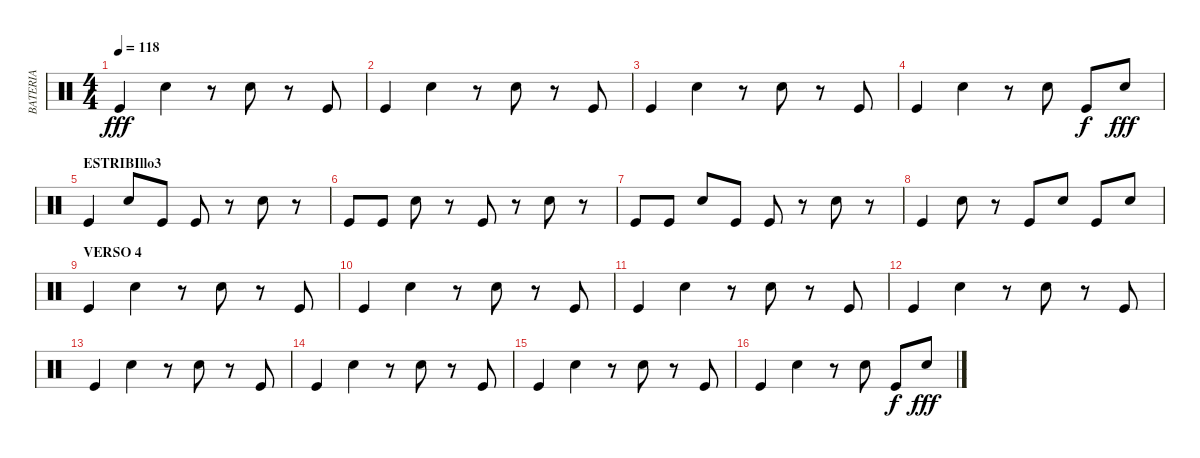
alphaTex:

\track ("BATERIA" "BATERIA") {instrument percussion}
\staff {score}
\articulation defaults
\ts (4 4)
\tempo 118
\clef neutral
\ks c "Kick (hit)".4{dy fff} "Snare (hit) 2".4
r.8 "Snare (hit) 2".8 r.8 "Kick (hit)".8 |
"Kick (hit)".4 "Snare (hit) 2".4 r.8 "Snare (hit) 2".8 r.8 "Kick (hit)".8 |
"Kick (hit)".4 "Snare (hit) 2".4 r.8 "Snare (hit) 2".8 r.8 "Kick (hit)".8 |
"Kick (hit)".4 "Snare (hit) 2".4 r.8 "Snare (hit) 2".8 "Kick (hit)".8{dy f} "Snare (hit) 2".8{dy fff} |
\section ("" "ESTRIBIllo3")
"Kick (hit)".4 "Snare (hit) 2".8 "Kick (hit)".8 "Kick (hit)".8 r.8 "Snare (hit) 2".8 r.8 |
"Kick (hit)".8 "Kick (hit)".8 "Snare (hit) 2".8 r.8 "Kick (hit)".8 r.8 "Snare (hit) 2".8 r.8 |
"Kick (hit)".8 "Kick (hit)".8 "Snare (hit) 2".8 "Kick (hit)".8 "Kick (hit)".8 r.8 "Snare (hit) 2".8 r.8 |
"Kick (hit)".4 "Snare (hit) 2".8 r.8 "Kick (hit)".8 "Snare (hit) 2".8 "Kick (hit)".8 "Snare (hit) 2".8 |
\section ("" "VERSO 4")
"Kick (hit)".4 "Snare (hit) 2".4 r.8 "Snare (hit) 2".8 r.8 "Kick (hit)".8 |
"Kick (hit)".4 "Snare (hit) 2".4 r.8 "Snare (hit) 2".8 r.8 "Kick (hit)".8 |
"Kick (hit)".4 "Snare (hit) 2".4 r.8 "Snare (hit) 2".8 r.8 "Kick (hit)".8 |
"Kick (hit)".4 "Snare (hit) 2".4 r.8 "Snare (hit) 2".8 r.8 "Kick (hit)".8 |
"Kick (hit)".4 "Snare (hit) 2".4 r.8 "Snare (hit) 2".8 r.8 "Kick (hit)".8 |
"Kick (hit)".4 "Snare (hit) 2".4 r.8 "Snare (hit) 2".8 r.8 "Kick (hit)".8 |
"Kick (hit)".4 "Snare (hit) 2".4 r.8 "Snare (hit) 2".8 r.8 "Kick (hit)".8 |
"Kick (hit)".4 "Snare (hit) 2".4 r.8 "Snare (hit) 2".8 "Kick (hit)".8{dy f} "Snare (hit) 2".8{dy fff}
